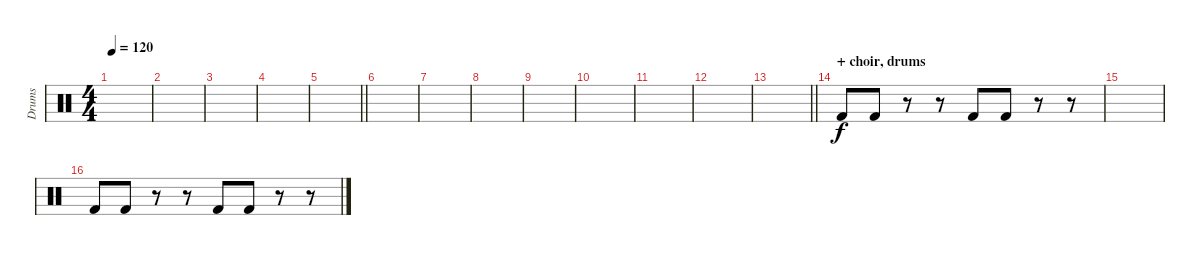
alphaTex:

\track ("Drums" "Drums") {instrument percussion}
\staff {score}
\articulation defaults
\ts (4 4)
\tempo 120
\clef neutral
\ks c
|
|
|
|
\barLineRight lightlight
|
|
|
|
|
|
|
|
\barLineRight lightlight
|
\section ("" "+ choir, drums")
"Kick (hit) 2".8 "Kick (hit) 2".8 r.8 r.8 "Kick (hit) 2".8 "Kick (hit) 2".8 r.8 r.8 |
|
"Kick (hit) 2".8 "Kick (hit) 2".8 r.8 r.8 "Kick (hit) 2".8 "Kick (hit) 2".8 r.8 r.8
